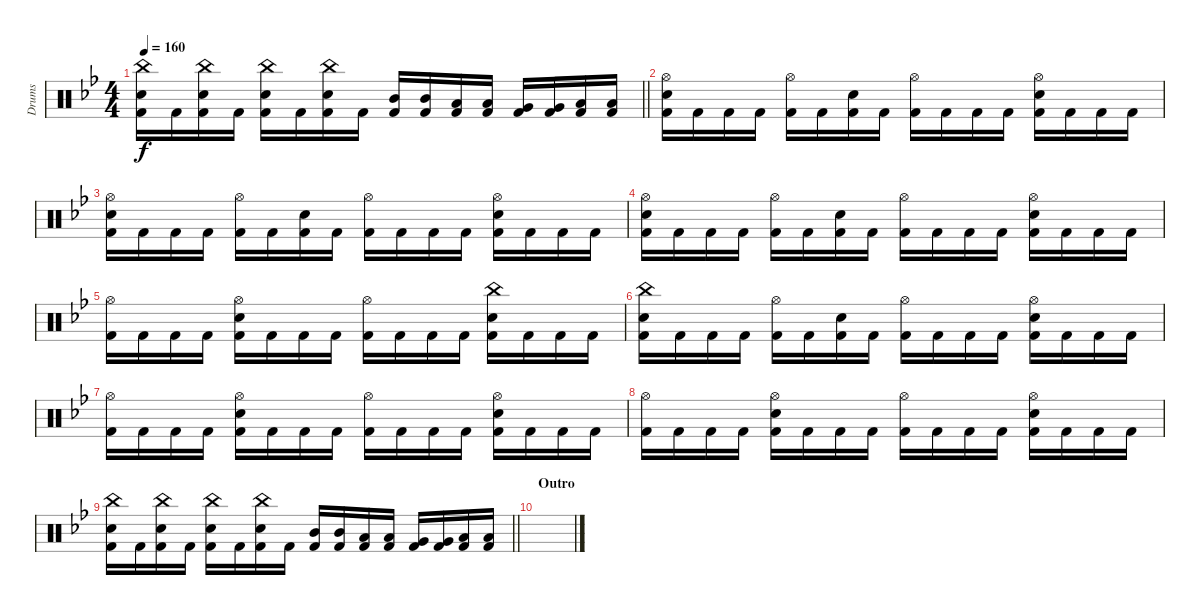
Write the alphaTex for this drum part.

\track ("Drums" "Drums") {instrument percussion}
\staff {score}
\articulation defaults
\ts (4 4)
\tempo 160
\clef neutral
\barLineRight lightlight
\ks bb
("China (hit)" "Electric Snare (hit)" "Kick (hit) 2").16{dy f} "Kick (hit) 2".16 ("China (hit)" "Electric Snare (hit)" "Kick (hit) 2").16 "Kick (hit) 2".16 ("China (hit)" "Electric Snare (hit)" "Kick (hit) 2").16 "Kick (hit) 2".16 ("China (hit)" "Electric Snare (hit)" "Kick (hit) 2").16 "Kick (hit) 2".16 ("Mid Tom (hit)" "Kick (hit) 2").16 ("Mid Tom (hit)" "Kick (hit) 2").16 ("Low Tom (hit)" "Kick (hit) 2").16 ("Low Tom (hit)" "Kick (hit) 2").16 ("Very Low Tom (hit)" "Kick (hit) 2").16 ("Very Low Tom (hit)" "Kick (hit) 2").16 ("Low Floor Tom (hit)" "Kick (hit) 2").16 ("Low Floor Tom (hit)" "Kick (hit) 2").16 |
("Hi-Hat (open)" "Electric Snare (hit)" "Kick (hit) 2").16 "Kick (hit) 2".16 "Kick (hit) 2".16 "Kick (hit) 2".16 ("Hi-Hat (open)" "Kick (hit) 2").16 "Kick (hit) 2".16 ("Electric Snare (hit)" "Kick (hit) 2").16 "Kick (hit) 2".16 ("Hi-Hat (open)" "Kick (hit) 2").16 "Kick (hit) 2".16 "Kick (hit) 2".16 "Kick (hit) 2".16 ("Hi-Hat (open)" "Electric Snare (hit)" "Kick (hit) 2").16 "Kick (hit) 2".16 "Kick (hit) 2".16 "Kick (hit) 2".16 |
("Hi-Hat (open)" "Electric Snare (hit)" "Kick (hit) 2").16 "Kick (hit) 2".16 "Kick (hit) 2".16 "Kick (hit) 2".16 ("Hi-Hat (open)" "Kick (hit) 2").16 "Kick (hit) 2".16 ("Electric Snare (hit)" "Kick (hit) 2").16 "Kick (hit) 2".16 ("Hi-Hat (open)" "Kick (hit) 2").16 "Kick (hit) 2".16 "Kick (hit) 2".16 "Kick (hit) 2".16 ("Hi-Hat (open)" "Electric Snare (hit)" "Kick (hit) 2").16 "Kick (hit) 2".16 "Kick (hit) 2".16 "Kick (hit) 2".16 |
("Hi-Hat (open)" "Electric Snare (hit)" "Kick (hit) 2").16 "Kick (hit) 2".16 "Kick (hit) 2".16 "Kick (hit) 2".16 ("Hi-Hat (open)" "Kick (hit) 2").16 "Kick (hit) 2".16 ("Electric Snare (hit)" "Kick (hit) 2").16 "Kick (hit) 2".16 ("Hi-Hat (open)" "Kick (hit) 2").16 "Kick (hit) 2".16 "Kick (hit) 2".16 "Kick (hit) 2".16 ("Hi-Hat (open)" "Electric Snare (hit)" "Kick (hit) 2").16 "Kick (hit) 2".16 "Kick (hit) 2".16 "Kick (hit) 2".16 |
("Hi-Hat (open)" "Kick (hit) 2").16 "Kick (hit) 2".16 "Kick (hit) 2".16 "Kick (hit) 2".16 ("Hi-Hat (open)" "Electric Snare (hit)" "Kick (hit) 2").16 "Kick (hit) 2".16 "Kick (hit) 2".16 "Kick (hit) 2".16 ("Hi-Hat (open)" "Kick (hit) 2").16 "Kick (hit) 2".16 "Kick (hit) 2".16 "Kick (hit) 2".16 ("China (hit)" "Electric Snare (hit)" "Kick (hit) 2").16 "Kick (hit) 2".16 "Kick (hit) 2".16 "Kick (hit) 2".16 |
("China (hit)" "Electric Snare (hit)" "Kick (hit) 2").16 "Kick (hit) 2".16 "Kick (hit) 2".16 "Kick (hit) 2".16 ("Hi-Hat (open)" "Kick (hit) 2").16 "Kick (hit) 2".16 ("Electric Snare (hit)" "Kick (hit) 2").16 "Kick (hit) 2".16 ("Hi-Hat (open)" "Kick (hit) 2").16 "Kick (hit) 2".16 "Kick (hit) 2".16 "Kick (hit) 2".16 ("Hi-Hat (open)" "Electric Snare (hit)" "Kick (hit) 2").16 "Kick (hit) 2".16 "Kick (hit) 2".16 "Kick (hit) 2".16 |
("Hi-Hat (open)" "Kick (hit) 2").16 "Kick (hit) 2".16 "Kick (hit) 2".16 "Kick (hit) 2".16 ("Hi-Hat (open)" "Electric Snare (hit)" "Kick (hit) 2").16 "Kick (hit) 2".16 "Kick (hit) 2".16 "Kick (hit) 2".16 ("Hi-Hat (open)" "Kick (hit) 2").16 "Kick (hit) 2".16 "Kick (hit) 2".16 "Kick (hit) 2".16 ("Hi-Hat (open)" "Electric Snare (hit)" "Kick (hit) 2").16 "Kick (hit) 2".16 "Kick (hit) 2".16 "Kick (hit) 2".16 |
("Hi-Hat (open)" "Kick (hit) 2").16 "Kick (hit) 2".16 "Kick (hit) 2".16 "Kick (hit) 2".16 ("Hi-Hat (open)" "Electric Snare (hit)" "Kick (hit) 2").16 "Kick (hit) 2".16 "Kick (hit) 2".16 "Kick (hit) 2".16 ("Hi-Hat (open)" "Kick (hit) 2").16 "Kick (hit) 2".16 "Kick (hit) 2".16 "Kick (hit) 2".16 ("Hi-Hat (open)" "Electric Snare (hit)" "Kick (hit) 2").16 "Kick (hit) 2".16 "Kick (hit) 2".16 "Kick (hit) 2".16 |
\barLineRight lightlight
("China (hit)" "Electric Snare (hit)" "Kick (hit) 2").16 "Kick (hit) 2".16 ("China (hit)" "Electric Snare (hit)" "Kick (hit) 2").16 "Kick (hit) 2".16 ("China (hit)" "Electric Snare (hit)" "Kick (hit) 2").16 "Kick (hit) 2".16 ("China (hit)" "Electric Snare (hit)" "Kick (hit) 2").16 "Kick (hit) 2".16 ("Mid Tom (hit)" "Kick (hit) 2").16 ("Mid Tom (hit)" "Kick (hit) 2").16 ("Low Tom (hit)" "Kick (hit) 2").16 ("Low Tom (hit)" "Kick (hit) 2").16 ("Very Low Tom (hit)" "Kick (hit) 2").16 ("Very Low Tom (hit)" "Kick (hit) 2").16 ("Low Floor Tom (hit)" "Kick (hit) 2").16 ("Low Floor Tom (hit)" "Kick (hit) 2").16 |
\section ("" "Outro")
